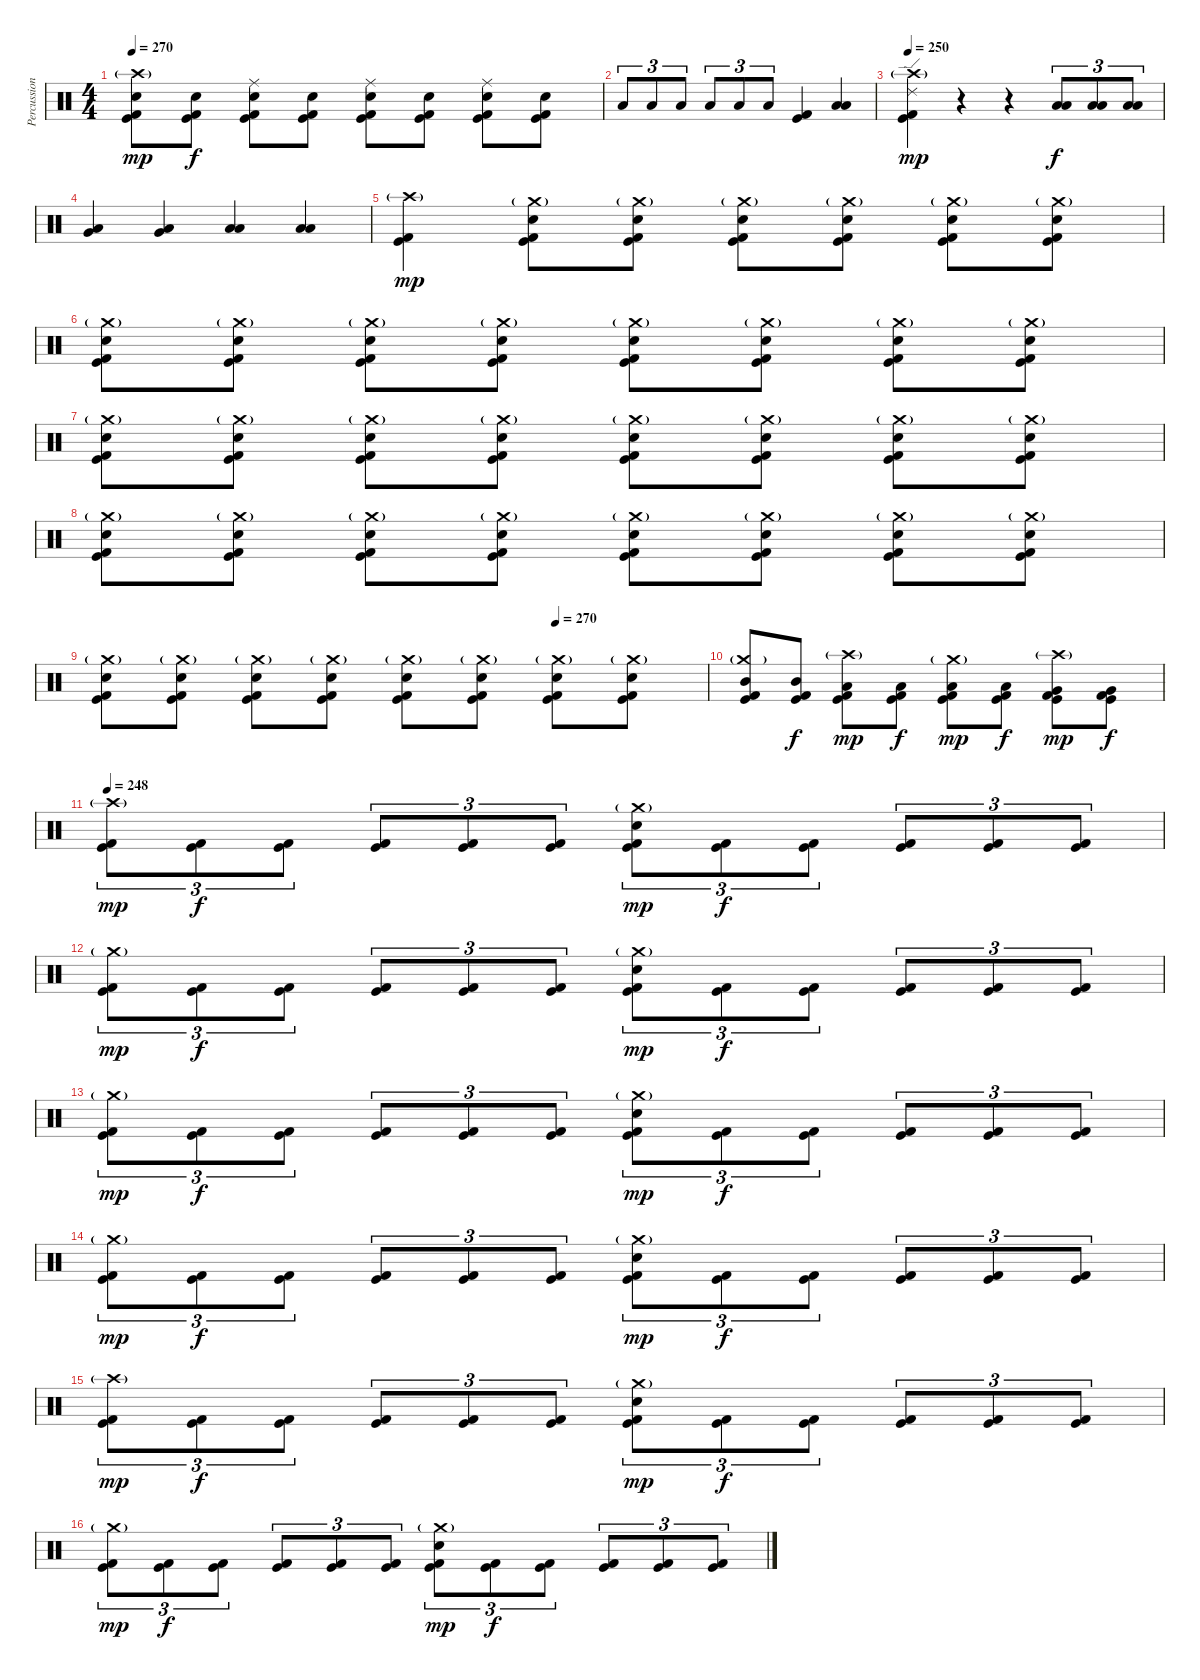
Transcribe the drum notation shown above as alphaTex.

\track ("Percussion" "Percussion") {instrument percussion}
\staff {score}
\articulation defaults
\ts (4 4)
\tempo 270
\clef neutral
\ks c
("Crash high (hit)"{g} "Electric Snare (hit)" "Kick (hit)" "Kick (hit) 2").8{dy mp} ("Electric Snare (hit)" "Kick (hit)" "Kick (hit) 2").8{dy f} ("Ride (middle)" "Electric Snare (hit)" "Kick (hit)" "Kick (hit) 2").8 ("Electric Snare (hit)" "Kick (hit)" "Kick (hit) 2").8 ("Ride (middle)" "Electric Snare (hit)" "Kick (hit)" "Kick (hit) 2").8 ("Electric Snare (hit)" "Kick (hit)" "Kick (hit) 2").8 ("Ride (middle)" "Electric Snare (hit)" "Kick (hit)" "Kick (hit) 2").8 ("Electric Snare (hit)" "Kick (hit)" "Kick (hit) 2").8 |
"Low Tom (hit)".8{tu (3 2)} "Low Tom (hit)".8{tu (3 2)} "Low Tom (hit)".8{tu (3 2)} "Low Tom (hit)".8{tu (3 2)} "Low Tom (hit)".8{tu (3 2)} "Low Tom (hit)".8{tu (3 2)} ("Kick (hit)" "Kick (hit) 2").4 ("Low Tom (hit)" "Low Floor Tom (hit)").4 |
\tempo 250
("Crash high (hit)"{g} "Ride (edge) 2" "Kick (hit)" "Kick (hit) 2").4{dy mp} r.4 r.4 ("Low Floor Tom (hit)" "Low Tom (hit)").8{tu (3 2) dy f} ("Low Floor Tom (hit)" "Low Tom (hit)").8{tu (3 2)} ("Low Floor Tom (hit)" "Low Tom (hit)").8{tu (3 2)} |
("Very Low Tom (hit)" "Low Tom (hit)").4 ("Low Tom (hit)" "Very Low Tom (hit)").4 ("Low Floor Tom (hit)" "Low Tom (hit)").4 ("Low Floor Tom (hit)" "Low Tom (hit)").4 |
("Crash high (hit)"{g} "Kick (hit)" "Kick (hit) 2").4{dy mp} ("Crash medium (hit)"{g} "Electric Snare (hit)" "Kick (hit)" "Kick (hit) 2").8 ("Crash medium (hit)"{g} "Electric Snare (hit)" "Kick (hit)" "Kick (hit) 2").8 ("Crash medium (hit)"{g} "Electric Snare (hit)" "Kick (hit)" "Kick (hit) 2").8 ("Crash medium (hit)"{g} "Electric Snare (hit)" "Kick (hit)" "Kick (hit) 2").8 ("Crash medium (hit)"{g} "Electric Snare (hit)" "Kick (hit)" "Kick (hit) 2").8 ("Crash medium (hit)"{g} "Electric Snare (hit)" "Kick (hit)" "Kick (hit) 2").8 |
("Crash medium (hit)"{g} "Electric Snare (hit)" "Kick (hit)" "Kick (hit) 2").8 ("Crash medium (hit)"{g} "Electric Snare (hit)" "Kick (hit)" "Kick (hit) 2").8 ("Crash medium (hit)"{g} "Electric Snare (hit)" "Kick (hit)" "Kick (hit) 2").8 ("Crash medium (hit)"{g} "Electric Snare (hit)" "Kick (hit)" "Kick (hit) 2").8 ("Crash medium (hit)"{g} "Electric Snare (hit)" "Kick (hit)" "Kick (hit) 2").8 ("Crash medium (hit)"{g} "Electric Snare (hit)" "Kick (hit)" "Kick (hit) 2").8 ("Crash medium (hit)"{g} "Electric Snare (hit)" "Kick (hit)" "Kick (hit) 2").8 ("Crash medium (hit)"{g} "Electric Snare (hit)" "Kick (hit)" "Kick (hit) 2").8 |
("Crash medium (hit)"{g} "Electric Snare (hit)" "Kick (hit)" "Kick (hit) 2").8 ("Crash medium (hit)"{g} "Electric Snare (hit)" "Kick (hit)" "Kick (hit) 2").8 ("Crash medium (hit)"{g} "Electric Snare (hit)" "Kick (hit)" "Kick (hit) 2").8 ("Crash medium (hit)"{g} "Electric Snare (hit)" "Kick (hit)" "Kick (hit) 2").8 ("Crash medium (hit)"{g} "Electric Snare (hit)" "Kick (hit)" "Kick (hit) 2").8 ("Crash medium (hit)"{g} "Electric Snare (hit)" "Kick (hit)" "Kick (hit) 2").8 ("Crash medium (hit)"{g} "Electric Snare (hit)" "Kick (hit)" "Kick (hit) 2").8 ("Crash medium (hit)"{g} "Electric Snare (hit)" "Kick (hit)" "Kick (hit) 2").8 |
("Crash medium (hit)"{g} "Electric Snare (hit)" "Kick (hit)" "Kick (hit) 2").8 ("Crash medium (hit)"{g} "Electric Snare (hit)" "Kick (hit)" "Kick (hit) 2").8 ("Crash medium (hit)"{g} "Electric Snare (hit)" "Kick (hit)" "Kick (hit) 2").8 ("Crash medium (hit)"{g} "Electric Snare (hit)" "Kick (hit)" "Kick (hit) 2").8 ("Crash medium (hit)"{g} "Electric Snare (hit)" "Kick (hit)" "Kick (hit) 2").8 ("Crash medium (hit)"{g} "Electric Snare (hit)" "Kick (hit)" "Kick (hit) 2").8 ("Crash medium (hit)"{g} "Electric Snare (hit)" "Kick (hit)" "Kick (hit) 2").8 ("Crash medium (hit)"{g} "Electric Snare (hit)" "Kick (hit)" "Kick (hit) 2").8 |
\tempo (270 0.75)
("Crash medium (hit)"{g} "Electric Snare (hit)" "Kick (hit)" "Kick (hit) 2").8 ("Crash medium (hit)"{g} "Electric Snare (hit)" "Kick (hit)" "Kick (hit) 2").8 ("Crash medium (hit)"{g} "Electric Snare (hit)" "Kick (hit)" "Kick (hit) 2").8 ("Crash medium (hit)"{g} "Electric Snare (hit)" "Kick (hit)" "Kick (hit) 2").8 ("Crash medium (hit)"{g} "Electric Snare (hit)" "Kick (hit)" "Kick (hit) 2").8 ("Crash medium (hit)"{g} "Electric Snare (hit)" "Kick (hit)" "Kick (hit) 2").8 ("Crash medium (hit)"{g} "Electric Snare (hit)" "Kick (hit)" "Kick (hit) 2").8 ("Crash medium (hit)"{g} "Electric Snare (hit)" "Kick (hit)" "Kick (hit) 2").8 |
("Crash medium (hit)"{g} "Mid Tom (hit)" "Kick (hit)" "Kick (hit) 2").8 ("Mid Tom (hit)" "Kick (hit)" "Kick (hit) 2").8{dy f} ("Crash high (hit)"{g} "Low Tom (hit)" "Kick (hit)" "Kick (hit) 2").8{dy mp} ("Low Tom (hit)" "Kick (hit)" "Kick (hit) 2").8{dy f} ("Crash medium (hit)"{g} "Low Floor Tom (hit)" "Kick (hit)" "Kick (hit) 2").8{dy mp} ("Low Floor Tom (hit)" "Kick (hit)" "Kick (hit) 2").8{dy f} ("Crash high (hit)"{g} "Very Low Tom (hit)" "Kick (hit)" "Kick (hit) 2").8{dy mp} ("Very Low Tom (hit)" "Kick (hit)" "Kick (hit) 2").8{dy f} |
\tempo 248
("Crash high (hit)"{g} "Kick (hit)" "Kick (hit) 2").8{tu (3 2) dy mp} ("Kick (hit)" "Kick (hit) 2").8{tu (3 2) dy f} ("Kick (hit)" "Kick (hit) 2").8{tu (3 2)} ("Kick (hit)" "Kick (hit) 2").8{tu (3 2)} ("Kick (hit)" "Kick (hit) 2").8{tu (3 2)} ("Kick (hit)" "Kick (hit) 2").8{tu (3 2)} ("Crash medium (hit)"{g} "Electric Snare (hit)" "Kick (hit)" "Kick (hit) 2").8{tu (3 2) dy mp} ("Kick (hit)" "Kick (hit) 2").8{tu (3 2) dy f} ("Kick (hit)" "Kick (hit) 2").8{tu (3 2)} ("Kick (hit)" "Kick (hit) 2").8{tu (3 2)} ("Kick (hit)" "Kick (hit) 2").8{tu (3 2)} ("Kick (hit)" "Kick (hit) 2").8{tu (3 2)} |
("Crash medium (hit)"{g} "Kick (hit)" "Kick (hit) 2").8{tu (3 2) dy mp} ("Kick (hit)" "Kick (hit) 2").8{tu (3 2) dy f} ("Kick (hit)" "Kick (hit) 2").8{tu (3 2)} ("Kick (hit)" "Kick (hit) 2").8{tu (3 2)} ("Kick (hit)" "Kick (hit) 2").8{tu (3 2)} ("Kick (hit)" "Kick (hit) 2").8{tu (3 2)} ("Crash medium (hit)"{g} "Electric Snare (hit)" "Kick (hit)" "Kick (hit) 2").8{tu (3 2) dy mp} ("Kick (hit)" "Kick (hit) 2").8{tu (3 2) dy f} ("Kick (hit)" "Kick (hit) 2").8{tu (3 2)} ("Kick (hit)" "Kick (hit) 2").8{tu (3 2)} ("Kick (hit)" "Kick (hit) 2").8{tu (3 2)} ("Kick (hit)" "Kick (hit) 2").8{tu (3 2)} |
("Crash medium (hit)"{g} "Kick (hit)" "Kick (hit) 2").8{tu (3 2) dy mp} ("Kick (hit)" "Kick (hit) 2").8{tu (3 2) dy f} ("Kick (hit)" "Kick (hit) 2").8{tu (3 2)} ("Kick (hit)" "Kick (hit) 2").8{tu (3 2)} ("Kick (hit)" "Kick (hit) 2").8{tu (3 2)} ("Kick (hit)" "Kick (hit) 2").8{tu (3 2)} ("Crash medium (hit)"{g} "Electric Snare (hit)" "Kick (hit)" "Kick (hit) 2").8{tu (3 2) dy mp} ("Kick (hit)" "Kick (hit) 2").8{tu (3 2) dy f} ("Kick (hit)" "Kick (hit) 2").8{tu (3 2)} ("Kick (hit)" "Kick (hit) 2").8{tu (3 2)} ("Kick (hit)" "Kick (hit) 2").8{tu (3 2)} ("Kick (hit)" "Kick (hit) 2").8{tu (3 2)} |
("Crash medium (hit)"{g} "Kick (hit)" "Kick (hit) 2").8{tu (3 2) dy mp} ("Kick (hit)" "Kick (hit) 2").8{tu (3 2) dy f} ("Kick (hit)" "Kick (hit) 2").8{tu (3 2)} ("Kick (hit)" "Kick (hit) 2").8{tu (3 2)} ("Kick (hit)" "Kick (hit) 2").8{tu (3 2)} ("Kick (hit)" "Kick (hit) 2").8{tu (3 2)} ("Crash medium (hit)"{g} "Electric Snare (hit)" "Kick (hit)" "Kick (hit) 2").8{tu (3 2) dy mp} ("Kick (hit)" "Kick (hit) 2").8{tu (3 2) dy f} ("Kick (hit)" "Kick (hit) 2").8{tu (3 2)} ("Kick (hit)" "Kick (hit) 2").8{tu (3 2)} ("Kick (hit)" "Kick (hit) 2").8{tu (3 2)} ("Kick (hit)" "Kick (hit) 2").8{tu (3 2)} |
("Crash high (hit)"{g} "Kick (hit)" "Kick (hit) 2").8{tu (3 2) dy mp} ("Kick (hit)" "Kick (hit) 2").8{tu (3 2) dy f} ("Kick (hit)" "Kick (hit) 2").8{tu (3 2)} ("Kick (hit)" "Kick (hit) 2").8{tu (3 2)} ("Kick (hit)" "Kick (hit) 2").8{tu (3 2)} ("Kick (hit)" "Kick (hit) 2").8{tu (3 2)} ("Crash medium (hit)"{g} "Electric Snare (hit)" "Kick (hit)" "Kick (hit) 2").8{tu (3 2) dy mp} ("Kick (hit)" "Kick (hit) 2").8{tu (3 2) dy f} ("Kick (hit)" "Kick (hit) 2").8{tu (3 2)} ("Kick (hit)" "Kick (hit) 2").8{tu (3 2)} ("Kick (hit)" "Kick (hit) 2").8{tu (3 2)} ("Kick (hit)" "Kick (hit) 2").8{tu (3 2)} |
("Crash medium (hit)"{g} "Kick (hit)" "Kick (hit) 2").8{tu (3 2) dy mp} ("Kick (hit)" "Kick (hit) 2").8{tu (3 2) dy f} ("Kick (hit)" "Kick (hit) 2").8{tu (3 2)} ("Kick (hit)" "Kick (hit) 2").8{tu (3 2)} ("Kick (hit)" "Kick (hit) 2").8{tu (3 2)} ("Kick (hit)" "Kick (hit) 2").8{tu (3 2)} ("Crash medium (hit)"{g} "Electric Snare (hit)" "Kick (hit)" "Kick (hit) 2").8{tu (3 2) dy mp} ("Kick (hit)" "Kick (hit) 2").8{tu (3 2) dy f} ("Kick (hit)" "Kick (hit) 2").8{tu (3 2)} ("Kick (hit)" "Kick (hit) 2").8{tu (3 2)} ("Kick (hit)" "Kick (hit) 2").8{tu (3 2)} ("Kick (hit)" "Kick (hit) 2").8{tu (3 2)}
